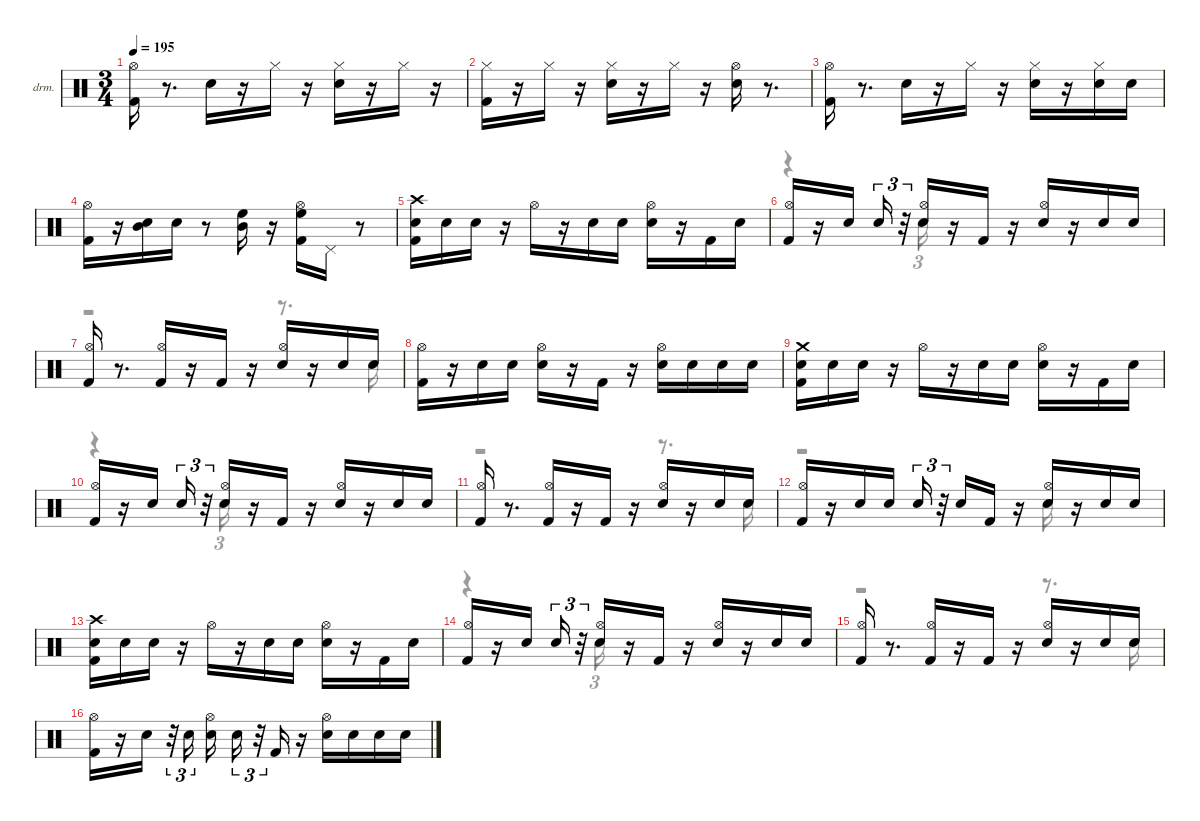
\hideDynamics
\bracketExtendMode nobrackets
\firstSystemTrackNameOrientation horizontal
\otherSystemsTrackNameOrientation horizontal
\track ("EZdrummer 3" "drm.") {instrument percussion}
\staff {score}
\articulation defaults
\voice
\ts (3 4)
\tempo 195
\clef neutral
\ks aminor
("Kick (hit) 2" "Hi-Hat (open)"{acc #}).16{dy ff beam Down} r.8{d beam Down} "Snare (hit) 2".16{beam Down} r.16{beam Down} "Hi-Hat (closed)"{acc #}.16{dy ppp beam Down} r.16{beam Down} ("Snare (hit) 2" "Hi-Hat (closed)"{acc #}).16{dy f beam Down} r.16{beam Down} "Hi-Hat (closed)"{acc #}.16{dy pp beam Down} r.16{beam Down} |
("Kick (hit) 2" "Hi-Hat (closed)"{acc #}).16{dy fff beam Down} r.16{beam Down} "Hi-Hat (closed)"{acc #}.16{dy ppp beam Down} r.16{beam Down} ("Snare (hit) 2" "Hi-Hat (closed)"{acc #}).16{dy f beam Down} r.16{beam Down} "Hi-Hat (closed)"{acc #}.16{dy ppp beam Down} r.16{beam Down} ("Snare (hit) 2" "Hi-Hat (open)"{acc #}).16{dy f beam Down} r.8{d beam Down} |
("Kick (hit) 2" "Hi-Hat (open)"{acc #}).16{dy fff beam Down} r.8{d beam Down} "Snare (hit) 2".16{dy f beam Down} r.16{beam Down} "Hi-Hat (closed)"{acc #}.16{dy ppp beam Down} r.16{beam Down} ("Snare (hit) 2" "Hi-Hat (closed)"{acc #}).16{dy f beam Down} r.16{beam Down} ("Snare (hit) 2" "Hi-Hat (closed)"{acc #}).16{dy pp beam Down} "Snare (hit) 2".16{beam Down} |
("Kick (hit) 2" "Hi-Hat (open)"{acc #}).16{dy fff beam Down} r.16{beam Down} ("Snare (hit) 2" "Mid Tom (hit)").16{beam Down} "Snare (hit) 2".16{dy ppp beam Down} r.8{beam Down} ("Mid Tom (hit)" "High Floor Tom (hit)").16{dy fff beam Down} r.16{beam Down} ("Kick (hit) 2" "Hi-Hat (open)"{acc #} "High Floor Tom (hit)").16{beam Down} "Pedal Hi-Hat (hit)"{acc #}.16{dy pp beam Down} r.8{beam Down} |
("Kick (hit) 2" "Snare (hit) 2" "Crash high (hit)"{acc #}).16{dy fff beam Down} "Snare (hit) 2".16{dy pp beam Down} "Snare (hit) 2".16{dy ppp beam Down} r.16{beam Down} "Hi-Hat (open)"{acc #}.16{dy mp beam Down} r.16{beam Down} "Snare (hit) 2".16{dy ff beam Down} "Snare (hit) 2".16{dy pp beam Down} ("Snare (hit) 2" "Hi-Hat (open)"{acc #}).16{dy ppp beam Down} r.16{beam Down} "Kick (hit) 2".16{dy p beam Up} "Snare (hit) 2".16{dy ppp beam Up} |
("Kick (hit) 2" "Hi-Hat (open)"{acc #}).16{dy ff beam Up} r.16{beam Up} "Snare (hit) 2".16{beam Up} "Snare (hit) 2".16{tu (3 2) dy pp beam Up} r.32{tu (3 2) beam Up} ("Snare (hit) 2" "Hi-Hat (open)"{acc #}).16{dy ppp beam Up} r.16{beam Up} "Kick (hit) 2".16{dy f beam Up} r.16{beam Up} ("Snare (hit) 2" "Hi-Hat (open)"{acc #}).16{dy ff beam Up} r.16{beam Up} "Snare (hit) 2".16{dy f beam Up} "Snare (hit) 2".16{dy ppp beam Up} |
("Kick (hit) 2" "Hi-Hat (open)"{acc #}).16{dy fff beam Up} r.8{d beam Up} ("Kick (hit) 2" "Hi-Hat (open)"{acc #}).16{dy mp beam Up} r.16{beam Up} "Kick (hit) 2".16{dy ff beam Up} r.16{beam Up} ("Snare (hit) 2" "Hi-Hat (open)"{acc #}).16{dy mf beam Up} r.16{beam Up} "Snare (hit) 2".16{dy pp beam Up} "Snare (hit) 2".16{dy ppp beam Up} |
("Kick (hit) 2" "Hi-Hat (open)"{acc #}).16{dy ff beam Down} r.16{beam Down} "Snare (hit) 2".16{dy fff beam Down} "Snare (hit) 2".16{dy pp beam Down} ("Snare (hit) 2" "Hi-Hat (open)"{acc #}).16{dy ppp beam Down} r.16{beam Down} "Kick (hit) 2".16{dy f beam Up} r.16{beam Up} ("Snare (hit) 2" "Hi-Hat (open)"{acc #}).16{dy fff beam Down} "Snare (hit) 2".16{dy ppp beam Down} "Snare (hit) 2".16{beam Down} "Snare (hit) 2".16{beam Down} |
("Kick (hit) 2" "Snare (hit) 2" "Crash medium (hit)").16{dy f beam Down} "Snare (hit) 2".16{dy pp beam Down} "Snare (hit) 2".16{dy ppp beam Down} r.16{beam Down} "Hi-Hat (open)"{acc #}.16{dy mp beam Down} r.16{beam Down} "Snare (hit) 2".16{dy ff beam Down} "Snare (hit) 2".16{dy pp beam Down} ("Snare (hit) 2" "Hi-Hat (open)"{acc #}).16{dy mf beam Down} r.16{beam Down} "Kick (hit) 2".16{dy p beam Up} "Snare (hit) 2".16{dy ppp beam Up} |
("Kick (hit) 2" "Hi-Hat (open)"{acc #}).16{dy ff beam Up} r.16{beam Up} "Snare (hit) 2".16{beam Up} "Snare (hit) 2".16{tu (3 2) dy pp beam Up} r.32{tu (3 2) beam Up} ("Snare (hit) 2" "Hi-Hat (open)"{acc #}).16{dy mf beam Up} r.16{beam Up} "Kick (hit) 2".16{dy f beam Up} r.16{beam Up} ("Snare (hit) 2" "Hi-Hat (open)"{acc #}).16{dy ff beam Up} r.16{beam Up} "Snare (hit) 2".16{dy f beam Up} "Snare (hit) 2".16{dy ppp beam Up} |
("Kick (hit) 2" "Hi-Hat (open)"{acc #}).16{dy fff beam Up} r.8{d beam Up} ("Kick (hit) 2" "Hi-Hat (open)"{acc #}).16{dy mp beam Up} r.16{beam Up} "Kick (hit) 2".16{dy ff beam Up} r.16{beam Up} ("Snare (hit) 2" "Hi-Hat (open)"{acc #}).16{dy mf beam Up} r.16{beam Up} "Snare (hit) 2".16{dy pp beam Up} "Snare (hit) 2".16{dy ppp beam Up} |
("Kick (hit) 2" "Hi-Hat (open)"{acc #}).16{dy ff beam Up} r.16{beam Up} "Snare (hit) 2".16{dy mf beam Up} "Snare (hit) 2".16{dy p beam Up} "Snare (hit) 2".16{tu (3 2) dy fff beam Up} r.32{tu (3 2) beam Up} "Snare (hit) 2".16{dy ppp beam Up} "Kick (hit) 2".16{dy f beam Up} r.16{beam Up} ("Snare (hit) 2" "Hi-Hat (open)"{acc #}).16{dy fff beam Up} r.16{beam Up} "Snare (hit) 2".16{dy pp beam Up} "Snare (hit) 2".16{dy ppp beam Up} |
("Kick (hit) 2" "Snare (hit) 2" "Crash high (hit)"{acc #}).16{dy fff beam Down} "Snare (hit) 2".16{dy pp beam Down} "Snare (hit) 2".16{dy ppp beam Down} r.16{beam Down} "Hi-Hat (open)"{acc #}.16{dy mp beam Down} r.16{beam Down} "Snare (hit) 2".16{dy ff beam Down} "Snare (hit) 2".16{dy pp beam Down} ("Snare (hit) 2" "Hi-Hat (open)"{acc #}).16{dy mf beam Down} r.16{beam Down} "Kick (hit) 2".16{dy p beam Up} "Snare (hit) 2".16{dy ppp beam Up} |
("Kick (hit) 2" "Hi-Hat (open)"{acc #}).16{dy ff beam Up} r.16{beam Up} "Snare (hit) 2".16{beam Up} "Snare (hit) 2".16{tu (3 2) dy pp beam Up} r.32{tu (3 2) beam Up} ("Snare (hit) 2" "Hi-Hat (open)"{acc #}).16{dy ppp beam Up} r.16{beam Up} "Kick (hit) 2".16{dy f beam Up} r.16{beam Up} ("Snare (hit) 2" "Hi-Hat (open)"{acc #}).16{dy ff beam Up} r.16{beam Up} "Snare (hit) 2".16{dy f beam Up} "Snare (hit) 2".16{dy ppp beam Up} |
("Kick (hit) 2" "Hi-Hat (open)"{acc #}).16{dy fff beam Up} r.8{d beam Up} ("Kick (hit) 2" "Hi-Hat (open)"{acc #}).16{dy mp beam Up} r.16{beam Up} "Kick (hit) 2".16{dy ff beam Up} r.16{beam Up} ("Snare (hit) 2" "Hi-Hat (open)"{acc #}).16{beam Up} r.16{beam Up} "Snare (hit) 2".16{dy pp beam Up} "Snare (hit) 2".16{dy ppp beam Up} |
("Kick (hit) 2" "Hi-Hat (open)"{acc #}).16{dy ff beam Down} r.16{beam Down} "Snare (hit) 2".16{dy fff beam Down} r.32{tu (3 2) beam Down} "Snare (hit) 2".16{tu (3 2) dy pp beam Down} ("Snare (hit) 2" "Hi-Hat (open)"{acc #}).16{dy mp beam Down} "Snare (hit) 2".16{tu (3 2) dy ppp beam Down} r.32{tu (3 2) beam Down} "Kick (hit) 2".16{dy f beam Up} r.16{beam Up} ("Snare (hit) 2" "Hi-Hat (open)"{acc #}).16{dy mf beam Down} "Snare (hit) 2".16{dy ppp beam Down} "Snare (hit) 2".16{beam Down} "Snare (hit) 2".16{beam Down}
\voice
\clef neutral
\ottava regular
\simile none
\ks aminor
|
|
|
|
|
r.4{beam Down} "Snare (hit) 2".16{tu (3 2) beam Down} |
r.2{beam Down} r.8{d beam Down} "Snare (hit) 2".16{beam Down} |
|
|
r.4{beam Down} "Snare (hit) 2".16{tu (3 2) beam Down} |
r.2{beam Down} r.8{d beam Down} "Snare (hit) 2".16{beam Down} |
r.2{beam Down} "Snare (hit) 2".16{dy fff beam Down} |
|
r.4{beam Down} "Snare (hit) 2".16{tu (3 2) dy ppp beam Down} |
r.2{beam Down} r.8{d beam Down} "Snare (hit) 2".16{beam Down} |
